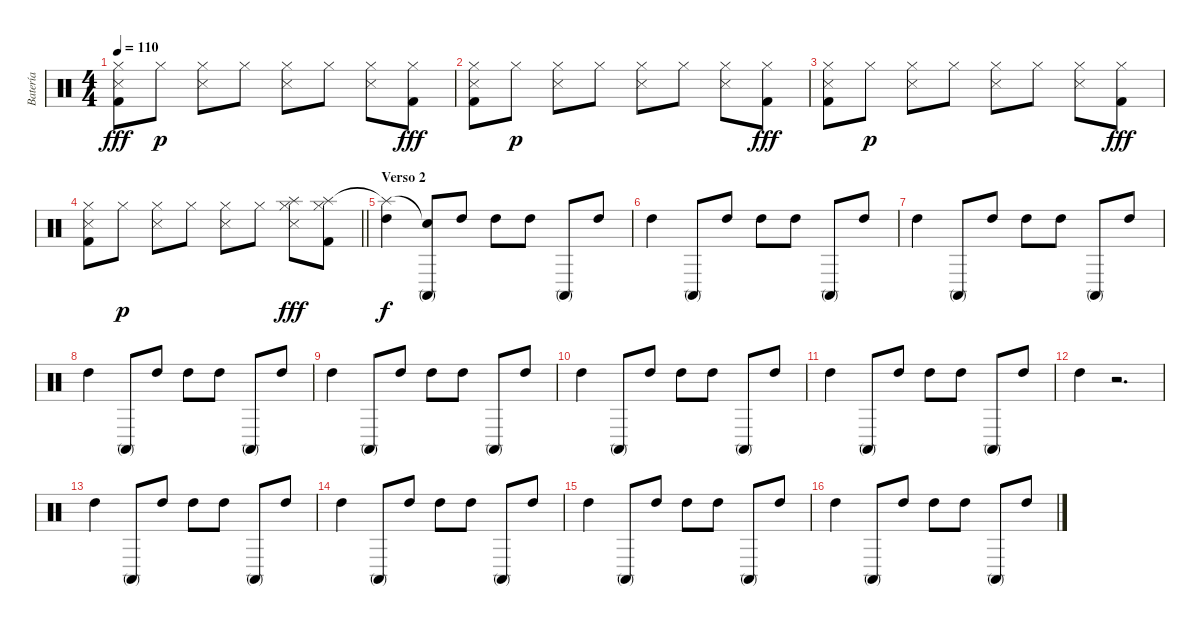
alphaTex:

\track ("Batería" "Batería") {instrument percussion}
\staff {score}
\articulation defaults
\ts (4 4)
\tempo 110
\clef neutral
\ks c
("Hi-Hat (closed)" "Snare (side stick) 3" "Kick (hit) 2").8{dy fff} "Hi-Hat (closed)".8{dy p} ("Hi-Hat (closed)" "Snare (side stick) 3").8 "Hi-Hat (closed)".8 ("Hi-Hat (closed)" "Snare (side stick) 3").8 "Hi-Hat (closed)".8 ("Hi-Hat (closed)" "Snare (side stick) 3").8 ("Hi-Hat (closed)" "Kick (hit) 2").8{dy fff} |
("Hi-Hat (closed)" "Snare (side stick) 3" "Kick (hit) 2").8 "Hi-Hat (closed)".8{dy p} ("Hi-Hat (closed)" "Snare (side stick) 3").8 "Hi-Hat (closed)".8 ("Hi-Hat (closed)" "Snare (side stick) 3").8 "Hi-Hat (closed)".8 ("Hi-Hat (closed)" "Snare (side stick) 3").8 ("Hi-Hat (closed)" "Kick (hit) 2").8{dy fff} |
("Hi-Hat (closed)" "Snare (side stick) 3" "Kick (hit) 2").8 "Hi-Hat (closed)".8{dy p} ("Hi-Hat (closed)" "Snare (side stick) 3").8 "Hi-Hat (closed)".8 ("Hi-Hat (closed)" "Snare (side stick) 3").8 "Hi-Hat (closed)".8 ("Hi-Hat (closed)" "Snare (side stick) 3").8 ("Hi-Hat (closed)" "Kick (hit) 2").8{dy fff} |
\barLineRight lightlight
("Hi-Hat (closed)" "Snare (side stick) 3" "Kick (hit) 2").8 "Hi-Hat (closed)".8{dy p} ("Hi-Hat (closed)" "Snare (side stick) 3").8 "Hi-Hat (closed)".8 ("Hi-Hat (closed)" "Snare (side stick) 3").8 "Hi-Hat (closed)".8 ("Hi-Hat (closed)" "Snare (side stick) 3" "Splash (hit)").8{dy fff} ("Hi-Hat (closed)" "Splash (hit)" "Kick (hit) 2").8 |
\section ("" "Verso 2")
("High Tom (hit)" "Splash (hit)"{t}).4{dy f} ("Conga high (mute)" "Snare (hit)"{t}).8 "High Tom (hit)".8 "High Tom (hit)".8 "High Tom (hit)".8 "Conga high (mute)".8 "High Tom (hit)".8 |
"High Tom (hit)".4 "Conga high (mute)".8 "High Tom (hit)".8 "High Tom (hit)".8 "High Tom (hit)".8 "Conga high (mute)".8 "High Tom (hit)".8 |
"High Tom (hit)".4 "Conga high (mute)".8 "High Tom (hit)".8 "High Tom (hit)".8 "High Tom (hit)".8 "Conga high (mute)".8 "High Tom (hit)".8 |
"High Tom (hit)".4 "Conga high (mute)".8 "High Tom (hit)".8 "High Tom (hit)".8 "High Tom (hit)".8 "Conga high (mute)".8 "High Tom (hit)".8 |
"High Tom (hit)".4 "Conga high (mute)".8 "High Tom (hit)".8 "High Tom (hit)".8 "High Tom (hit)".8 "Conga high (mute)".8 "High Tom (hit)".8 |
"High Tom (hit)".4 "Conga high (mute)".8 "High Tom (hit)".8 "High Tom (hit)".8 "High Tom (hit)".8 "Conga high (mute)".8 "High Tom (hit)".8 |
"High Tom (hit)".4 "Conga high (mute)".8 "High Tom (hit)".8 "High Tom (hit)".8 "High Tom (hit)".8 "Conga high (mute)".8 "High Tom (hit)".8 |
"High Tom (hit)".4 r.2{d} |
"High Tom (hit)".4 "Conga high (mute)".8 "High Tom (hit)".8 "High Tom (hit)".8 "High Tom (hit)".8 "Conga high (mute)".8 "High Tom (hit)".8 |
"High Tom (hit)".4 "Conga high (mute)".8 "High Tom (hit)".8 "High Tom (hit)".8 "High Tom (hit)".8 "Conga high (mute)".8 "High Tom (hit)".8 |
"High Tom (hit)".4 "Conga high (mute)".8 "High Tom (hit)".8 "High Tom (hit)".8 "High Tom (hit)".8 "Conga high (mute)".8 "High Tom (hit)".8 |
"High Tom (hit)".4 "Conga high (mute)".8 "High Tom (hit)".8 "High Tom (hit)".8 "High Tom (hit)".8 "Conga high (mute)".8 "High Tom (hit)".8
